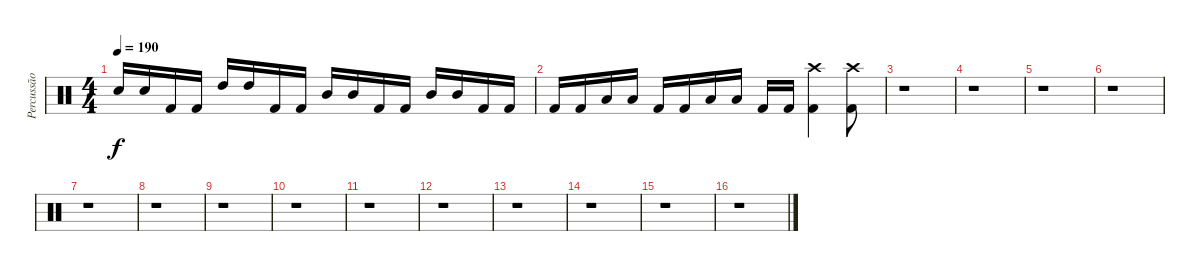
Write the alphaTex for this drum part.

\track ("Percussão" "Percussão") {instrument percussion}
\staff {score}
\articulation defaults
\ts (4 4)
\tempo 190
\clef neutral
\ks c "Snare (hit) 2".16{dy f} "Snare (hit) 2".16 "Kick (hit) 2".16 "Kick (hit) 2".16 "High Tom (hit)".16 "High Tom (hit)".16 "Kick (hit) 2".16 "Kick (hit) 2".16 "Mid Tom (hit)".16 "Mid Tom (hit)".16 "Kick (hit) 2".16 "Kick (hit) 2".16 "Mid Tom (hit)".16 "Mid Tom (hit)".16 "Kick (hit) 2".16 "Kick (hit) 2".16
|
"Kick (hit) 2".16 "Kick (hit) 2".16 "Low Tom (hit)".16 "Low Tom (hit)".16 "Kick (hit) 2".16 "Kick (hit) 2".16 "Low Tom (hit)".16 "Low Tom (hit)".16 "Kick (hit) 2".16 "Kick (hit) 2".16 ("Crash high (hit)" "Kick (hit) 2").4 ("Crash high (hit)" "Kick (hit) 2").8 |
r.1 |
r.1 |
r.1 |
r.1 |
r.1 |
r.1 |
r.1 |
r.1 |
r.1 |
r.1 |
r.1 |
r.1 |
r.1 |
r.1
